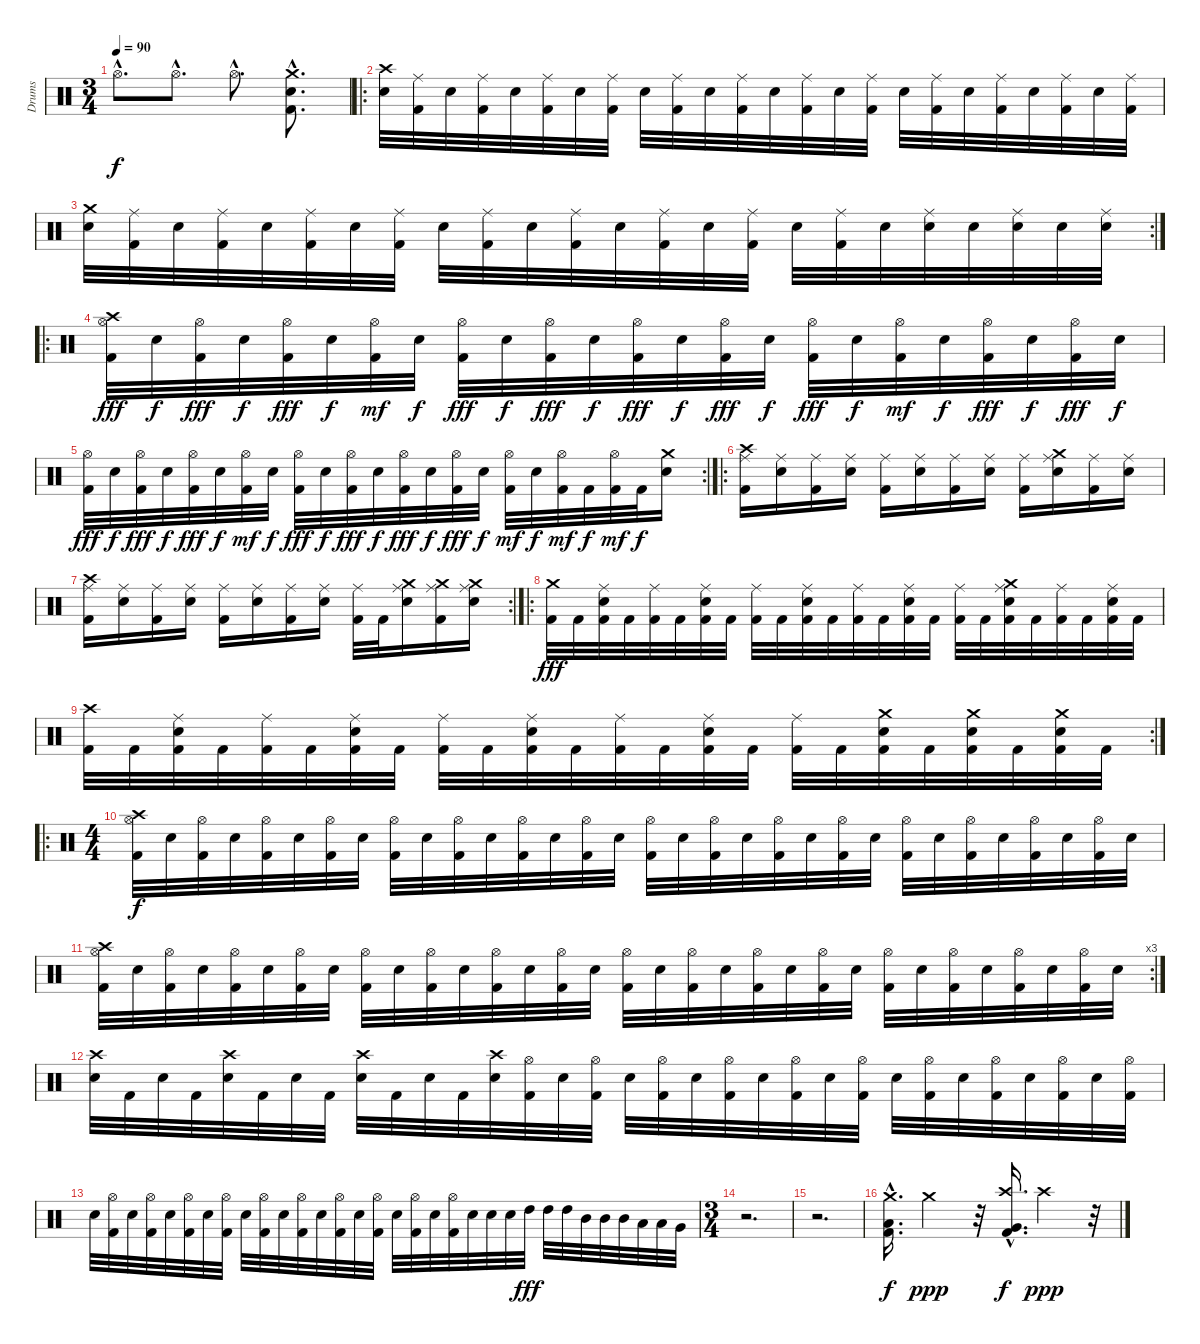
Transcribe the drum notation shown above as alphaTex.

\track ("Drums" "Drums") {instrument percussion}
\staff {score}
\articulation defaults
\ts (3 4)
\tempo 90
\clef neutral
\ks c "Hi-Hat (open)"{hac}.8{d dy f} "Hi-Hat (open)"{hac}.8{d} "Hi-Hat (open)"{hac}.8{d}
("Crash medium (hit)"{hac} "Electric Snare (hit)"{hac} "Kick (hit) 2"{hac}).8{d} |
\ro
("Crash high (hit)" "Electric Snare (hit)").32 ("Ride (middle)" "Kick (hit) 2").32 "Electric Snare (hit)".32 ("Ride (middle)" "Kick (hit) 2").32 "Electric Snare (hit)".32 ("Ride (middle)" "Kick (hit) 2").32 "Electric Snare (hit)".32 ("Ride (middle)" "Kick (hit) 2").32 "Electric Snare (hit)".32 ("Ride (middle)" "Kick (hit) 2").32 "Electric Snare (hit)".32 ("Ride (middle)" "Kick (hit) 2").32 "Electric Snare (hit)".32 ("Ride (middle)" "Kick (hit) 2").32 "Electric Snare (hit)".32 ("Ride (middle)" "Kick (hit) 2").32 "Electric Snare (hit)".32 ("Ride (middle)" "Kick (hit) 2").32 "Electric Snare (hit)".32 ("Ride (middle)" "Kick (hit) 2").32 "Electric Snare (hit)".32 ("Ride (middle)" "Kick (hit) 2").32 "Electric Snare (hit)".32 ("Ride (middle)" "Kick (hit) 2").32 |
\rc 2
("Crash medium (hit)" "Electric Snare (hit)").32 ("Ride (middle)" "Kick (hit) 2").32 "Electric Snare (hit)".32 ("Ride (middle)" "Kick (hit) 2").32 "Electric Snare (hit)".32 ("Ride (middle)" "Kick (hit) 2").32 "Electric Snare (hit)".32 ("Ride (middle)" "Kick (hit) 2").32 "Electric Snare (hit)".32 ("Ride (middle)" "Kick (hit) 2").32 "Electric Snare (hit)".32 ("Ride (middle)" "Kick (hit) 2").32 "Electric Snare (hit)".32 ("Ride (middle)" "Kick (hit) 2").32 "Electric Snare (hit)".32 ("Ride (middle)" "Kick (hit) 2").32 "Electric Snare (hit)".32 ("Ride (middle)" "Kick (hit) 2").32 "Electric Snare (hit)".32 ("Ride (middle)" "Electric Snare (hit)").32 "Electric Snare (hit)".32 ("Ride (middle)" "Electric Snare (hit)").32 "Electric Snare (hit)".32 ("Ride (middle)" "Electric Snare (hit)").32 |
\ro
("Crash high (hit)" "Hi-Hat (open)" "Kick (hit) 2").32{dy fff} "Electric Snare (hit)".32{dy f} ("Hi-Hat (open)" "Kick (hit) 2").32{dy fff} "Electric Snare (hit)".32{dy f} ("Hi-Hat (open)" "Kick (hit) 2").32{dy fff} "Electric Snare (hit)".32{dy f} ("Hi-Hat (open)" "Kick (hit) 2").32{dy mf} "Electric Snare (hit)".32{dy f} ("Hi-Hat (open)" "Kick (hit) 2").32{dy fff} "Electric Snare (hit)".32{dy f} ("Hi-Hat (open)" "Kick (hit) 2").32{dy fff} "Electric Snare (hit)".32{dy f} ("Hi-Hat (open)" "Kick (hit) 2").32{dy fff} "Electric Snare (hit)".32{dy f} ("Hi-Hat (open)" "Kick (hit) 2").32{dy fff} "Electric Snare (hit)".32{dy f} ("Hi-Hat (open)" "Kick (hit) 2").32{dy fff} "Electric Snare (hit)".32{dy f} ("Hi-Hat (open)" "Kick (hit) 2").32{dy mf} "Electric Snare (hit)".32{dy f} ("Hi-Hat (open)" "Kick (hit) 2").32{dy fff} "Electric Snare (hit)".32{dy f} ("Hi-Hat (open)" "Kick (hit) 2").32{dy fff} "Electric Snare (hit)".32{dy f} |
\rc 2
("Hi-Hat (open)" "Kick (hit) 2").32{dy fff} "Electric Snare (hit)".32{dy f} ("Hi-Hat (open)" "Kick (hit) 2").32{dy fff} "Electric Snare (hit)".32{dy f} ("Hi-Hat (open)" "Kick (hit) 2").32{dy fff} "Electric Snare (hit)".32{dy f} ("Hi-Hat (open)" "Kick (hit) 2").32{dy mf} "Electric Snare (hit)".32{dy f} ("Hi-Hat (open)" "Kick (hit) 2").32{dy fff} "Electric Snare (hit)".32{dy f} ("Hi-Hat (open)" "Kick (hit) 2").32{dy fff} "Electric Snare (hit)".32{dy f} ("Hi-Hat (open)" "Kick (hit) 2").32{dy fff} "Electric Snare (hit)".32{dy f} ("Hi-Hat (open)" "Kick (hit) 2").32{dy fff} "Electric Snare (hit)".32{dy f} ("Hi-Hat (open)" "Kick (hit) 2").32{dy mf} "Electric Snare (hit)".32{dy f} ("Hi-Hat (open)" "Kick (hit) 2").32{dy mf} "Kick (hit) 2".32{dy f} ("Hi-Hat (open)" "Kick (hit) 2").32{dy mf} "Kick (hit) 2".32{dy f} ("Crash medium (hit)" "Electric Snare (hit)").16 |
\ro
("Crash high (hit)" "Ride (middle)" "Kick (hit) 2").16 ("Ride (middle)" "Electric Snare (hit)").16 ("Ride (middle)" "Kick (hit) 2").16 ("Ride (middle)" "Electric Snare (hit)").16 ("Ride (middle)" "Kick (hit) 2").16 ("Ride (middle)" "Electric Snare (hit)").16 ("Ride (middle)" "Kick (hit) 2").16 ("Ride (middle)" "Electric Snare (hit)").16 ("Ride (middle)" "Kick (hit) 2").16 ("Crash medium (hit)" "Ride (middle)" "Electric Snare (hit)").16 ("Ride (middle)" "Kick (hit) 2").16 ("Ride (middle)" "Electric Snare (hit)").16 |
\rc 2
("Crash high (hit)" "Ride (middle)" "Kick (hit) 2").16 ("Ride (middle)" "Electric Snare (hit)").16 ("Ride (middle)" "Kick (hit) 2").16 ("Ride (middle)" "Electric Snare (hit)").16 ("Ride (middle)" "Kick (hit) 2").16 ("Ride (middle)" "Electric Snare (hit)").16 ("Ride (middle)" "Kick (hit) 2").16 ("Ride (middle)" "Electric Snare (hit)").16 ("Ride (middle)" "Kick (hit) 2").32 "Kick (hit) 2".32 ("Crash medium (hit)" "Ride (middle)" "Electric Snare (hit)").16 ("Crash medium (hit)" "Ride (middle)" "Kick (hit) 2").16 ("Crash medium (hit)" "Ride (middle)" "Electric Snare (hit)").16 |
\ro
("Crash medium (hit)" "Kick (hit) 2").32{dy fff} "Kick (hit) 2".32 ("Ride (middle)" "Electric Snare (hit)" "Kick (hit) 2").32 "Kick (hit) 2".32 ("Ride (middle)" "Kick (hit) 2").32 "Kick (hit) 2".32 ("Ride (middle)" "Electric Snare (hit)" "Kick (hit) 2").32 "Kick (hit) 2".32 ("Ride (middle)" "Kick (hit) 2").32 "Kick (hit) 2".32 ("Ride (middle)" "Electric Snare (hit)" "Kick (hit) 2").32 "Kick (hit) 2".32 ("Ride (middle)" "Kick (hit) 2").32 "Kick (hit) 2".32 ("Ride (middle)" "Electric Snare (hit)" "Kick (hit) 2").32 "Kick (hit) 2".32 ("Ride (middle)" "Kick (hit) 2").32 "Kick (hit) 2".32 ("Crash medium (hit)" "Ride (middle)" "Electric Snare (hit)" "Kick (hit) 2").32 "Kick (hit) 2".32 ("Ride (middle)" "Kick (hit) 2").32 "Kick (hit) 2".32 ("Ride (middle)" "Electric Snare (hit)" "Kick (hit) 2").32 "Kick (hit) 2".32 |
\rc 2
("Crash high (hit)" "Kick (hit) 2").32 "Kick (hit) 2".32 ("Ride (middle)" "Electric Snare (hit)" "Kick (hit) 2").32 "Kick (hit) 2".32 ("Ride (middle)" "Kick (hit) 2").32 "Kick (hit) 2".32 ("Ride (middle)" "Electric Snare (hit)" "Kick (hit) 2").32 "Kick (hit) 2".32 ("Ride (middle)" "Kick (hit) 2").32 "Kick (hit) 2".32 ("Ride (middle)" "Electric Snare (hit)" "Kick (hit) 2").32 "Kick (hit) 2".32 ("Ride (middle)" "Kick (hit) 2").32 "Kick (hit) 2".32 ("Ride (middle)" "Electric Snare (hit)" "Kick (hit) 2").32 "Kick (hit) 2".32 ("Ride (middle)" "Kick (hit) 2").32 "Kick (hit) 2".32 ("Crash medium (hit)" "Electric Snare (hit)" "Kick (hit) 2").32 "Kick (hit) 2".32 ("Crash medium (hit)" "Electric Snare (hit)" "Kick (hit) 2").32 "Kick (hit) 2".32 ("Crash medium (hit)" "Electric Snare (hit)" "Kick (hit) 2").32 "Kick (hit) 2".32 |
\ro
\ts (4 4)
("Crash high (hit)" "Hi-Hat (open)" "Kick (hit) 2").32{dy f} "Electric Snare (hit)".32 ("Hi-Hat (open)" "Kick (hit) 2").32 "Electric Snare (hit)".32 ("Hi-Hat (open)" "Kick (hit) 2").32 "Electric Snare (hit)".32 ("Hi-Hat (open)" "Kick (hit) 2").32 "Electric Snare (hit)".32 ("Hi-Hat (open)" "Kick (hit) 2").32 "Electric Snare (hit)".32 ("Hi-Hat (open)" "Kick (hit) 2").32 "Electric Snare (hit)".32 ("Hi-Hat (open)" "Kick (hit) 2").32 "Electric Snare (hit)".32 ("Hi-Hat (open)" "Kick (hit) 2").32 "Electric Snare (hit)".32 ("Hi-Hat (open)" "Kick (hit) 2").32 "Electric Snare (hit)".32 ("Hi-Hat (open)" "Kick (hit) 2").32 "Electric Snare (hit)".32 ("Hi-Hat (open)" "Kick (hit) 2").32 "Electric Snare (hit)".32 ("Hi-Hat (open)" "Kick (hit) 2").32 "Electric Snare (hit)".32 ("Hi-Hat (open)" "Kick (hit) 2").32 "Electric Snare (hit)".32 ("Hi-Hat (open)" "Kick (hit) 2").32 "Electric Snare (hit)".32 ("Hi-Hat (open)" "Kick (hit) 2").32 "Electric Snare (hit)".32 ("Hi-Hat (open)" "Kick (hit) 2").32 "Electric Snare (hit)".32 |
\rc 3
("Crash high (hit)" "Hi-Hat (open)" "Kick (hit) 2").32 "Electric Snare (hit)".32 ("Hi-Hat (open)" "Kick (hit) 2").32 "Electric Snare (hit)".32 ("Hi-Hat (open)" "Kick (hit) 2").32 "Electric Snare (hit)".32 ("Hi-Hat (open)" "Kick (hit) 2").32 "Electric Snare (hit)".32 ("Hi-Hat (open)" "Kick (hit) 2").32 "Electric Snare (hit)".32 ("Hi-Hat (open)" "Kick (hit) 2").32 "Electric Snare (hit)".32 ("Hi-Hat (open)" "Kick (hit) 2").32 "Electric Snare (hit)".32 ("Hi-Hat (open)" "Kick (hit) 2").32 "Electric Snare (hit)".32 ("Hi-Hat (open)" "Kick (hit) 2").32 "Electric Snare (hit)".32 ("Hi-Hat (open)" "Kick (hit) 2").32 "Electric Snare (hit)".32 ("Hi-Hat (open)" "Kick (hit) 2").32 "Electric Snare (hit)".32 ("Hi-Hat (open)" "Kick (hit) 2").32 "Electric Snare (hit)".32 ("Hi-Hat (open)" "Kick (hit) 2").32 "Electric Snare (hit)".32 ("Hi-Hat (open)" "Kick (hit) 2").32 "Electric Snare (hit)".32 ("Hi-Hat (open)" "Kick (hit) 2").32 "Electric Snare (hit)".32 ("Hi-Hat (open)" "Kick (hit) 2").32 "Electric Snare (hit)".32 |
("Crash high (hit)" "Electric Snare (hit)").32 "Kick (hit) 2".32 "Electric Snare (hit)".32 "Kick (hit) 2".32 ("Crash high (hit)" "Electric Snare (hit)").32 "Kick (hit) 2".32 "Electric Snare (hit)".32 "Kick (hit) 2".32 ("Crash high (hit)" "Electric Snare (hit)").32 "Kick (hit) 2".32 "Electric Snare (hit)".32 "Kick (hit) 2".32 ("Crash high (hit)" "Electric Snare (hit)").32 ("Hi-Hat (open)" "Kick (hit) 2").32 "Electric Snare (hit)".32 ("Hi-Hat (open)" "Kick (hit) 2").32 "Electric Snare (hit)".32 ("Hi-Hat (open)" "Kick (hit) 2").32 "Electric Snare (hit)".32 ("Hi-Hat (open)" "Kick (hit) 2").32 "Electric Snare (hit)".32 ("Hi-Hat (open)" "Kick (hit) 2").32 "Electric Snare (hit)".32 ("Hi-Hat (open)" "Kick (hit) 2").32 "Electric Snare (hit)".32 ("Hi-Hat (open)" "Kick (hit) 2").32 "Electric Snare (hit)".32 ("Hi-Hat (open)" "Kick (hit) 2").32 "Electric Snare (hit)".32 ("Hi-Hat (open)" "Kick (hit) 2").32 "Electric Snare (hit)".32 ("Hi-Hat (open)" "Kick (hit) 2").32 |
"Electric Snare (hit)".32 ("Hi-Hat (open)" "Kick (hit) 2").32 "Electric Snare (hit)".32 ("Hi-Hat (open)" "Kick (hit) 2").32 "Electric Snare (hit)".32 ("Hi-Hat (open)" "Kick (hit) 2").32 "Electric Snare (hit)".32 ("Hi-Hat (open)" "Kick (hit) 2").32 "Electric Snare (hit)".32 ("Hi-Hat (open)" "Kick (hit) 2").32 "Electric Snare (hit)".32 ("Hi-Hat (open)" "Kick (hit) 2").32 "Electric Snare (hit)".32 ("Hi-Hat (open)" "Kick (hit) 2").32 "Electric Snare (hit)".32 ("Hi-Hat (open)" "Kick (hit) 2").32 "Electric Snare (hit)".32 ("Hi-Hat (open)" "Kick (hit) 2").32 "Electric Snare (hit)".32 ("Hi-Hat (open)" "Kick (hit) 2").32 "Electric Snare (hit)".32 "Electric Snare (hit)".32 "Electric Snare (hit)".32 "High Tom (hit)".32{dy fff} "High Tom (hit)".32 "High Tom (hit)".32 "Mid Tom (hit)".32 "Mid Tom (hit)".32 "Mid Tom (hit)".32 "Low Tom (hit)".32 "Low Tom (hit)".32 "Very Low Tom (hit)".32 |
\ts (3 4)
r.2{d} |
r.2{d} |
("Crash medium (hit)"{hac} "Low Tom (hit)"{hac} "Kick (hit) 2"{hac}).16{d dy f} "Crash medium (hit)".4{dy ppp} r.32 ("Crash high (hit)"{hac} "Very Low Tom (hit)"{hac} "Kick (hit) 2"{hac}).16{d dy f} "Crash high (hit)".4{dy ppp} r.32
